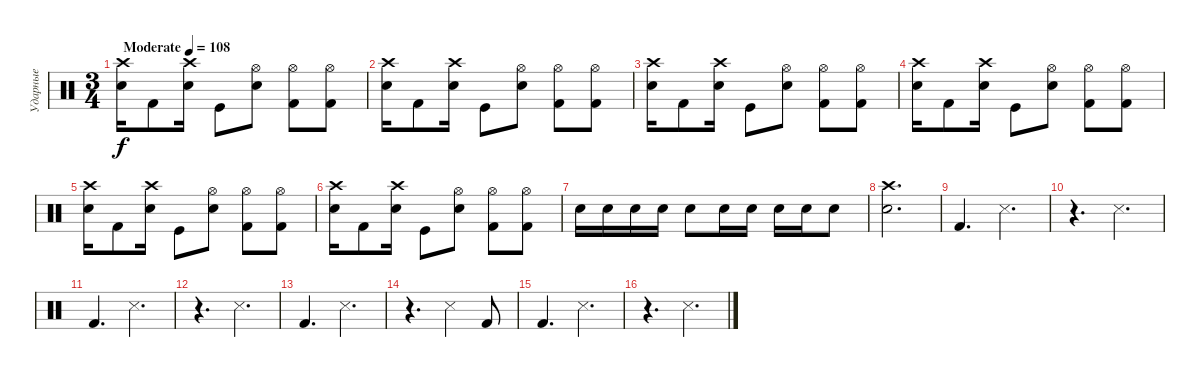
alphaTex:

\track ("Ударные" "Ударные") {instrument percussion}
\staff {score}
\articulation defaults
\ts (3 4)
\tempo (108 "Moderate")
\clef neutral
\ks c
("Snare (hit) 2" "Crash high (hit)").16{dy f} "Kick (hit) 2".8 ("Snare (hit) 2" "Crash high (hit)").16 "Kick (hit)".8 ("Snare (hit) 2" "Hi-Hat (open)").8 ("Kick (hit) 2" "Hi-Hat (open)").8 ("Kick (hit) 2" "Hi-Hat (open)").8 |
("Snare (hit) 2" "Crash high (hit)").16 "Kick (hit) 2".8 ("Snare (hit) 2" "Crash high (hit)").16 "Kick (hit)".8 ("Snare (hit) 2" "Hi-Hat (open)").8 ("Kick (hit) 2" "Hi-Hat (open)").8 ("Kick (hit) 2" "Hi-Hat (open)").8 |
("Snare (hit) 2" "Crash high (hit)").16 "Kick (hit) 2".8 ("Snare (hit) 2" "Crash high (hit)").16 "Kick (hit)".8 ("Snare (hit) 2" "Hi-Hat (open)").8 ("Kick (hit) 2" "Hi-Hat (open)").8 ("Kick (hit) 2" "Hi-Hat (open)").8 |
("Snare (hit) 2" "Crash high (hit)").16 "Kick (hit) 2".8 ("Snare (hit) 2" "Crash high (hit)").16 "Kick (hit)".8 ("Snare (hit) 2" "Hi-Hat (open)").8 ("Kick (hit) 2" "Hi-Hat (open)").8 ("Kick (hit) 2" "Hi-Hat (open)").8 |
("Snare (hit) 2" "Crash high (hit)").16 "Kick (hit) 2".8 ("Snare (hit) 2" "Crash high (hit)").16 "Kick (hit)".8 ("Snare (hit) 2" "Hi-Hat (open)").8 ("Kick (hit) 2" "Hi-Hat (open)").8 ("Kick (hit) 2" "Hi-Hat (open)").8 |
("Snare (hit) 2" "Crash high (hit)").16 "Kick (hit) 2".8 ("Snare (hit) 2" "Crash high (hit)").16 "Kick (hit)".8 ("Snare (hit) 2" "Hi-Hat (open)").8 ("Kick (hit) 2" "Hi-Hat (open)").8 ("Kick (hit) 2" "Hi-Hat (open)").8 |
"Snare (hit) 2".16 "Snare (hit) 2".16 "Snare (hit) 2".16 "Snare (hit) 2".16 "Snare (hit) 2".8 "Snare (hit) 2".16 "Snare (hit) 2".16 "Snare (hit) 2".16 "Snare (hit) 2".16 "Snare (hit) 2".8 |
("Snare (hit) 2" "Crash high (hit)").2{d} |
"Kick (hit) 2".4{d} "Snare (side stick) 3".4{d} |
r.4{d} "Snare (side stick) 3".4{d} |
"Kick (hit) 2".4{d} "Snare (side stick) 3".4{d} |
r.4{d} "Snare (side stick) 3".4{d} |
"Kick (hit) 2".4{d} "Snare (side stick) 3".4{d} |
r.4{d} "Snare (side stick) 3".4 "Kick (hit) 2".8 |
"Kick (hit) 2".4{d} "Snare (side stick) 3".4{d} |
r.4{d} "Snare (side stick) 3".4{d}
